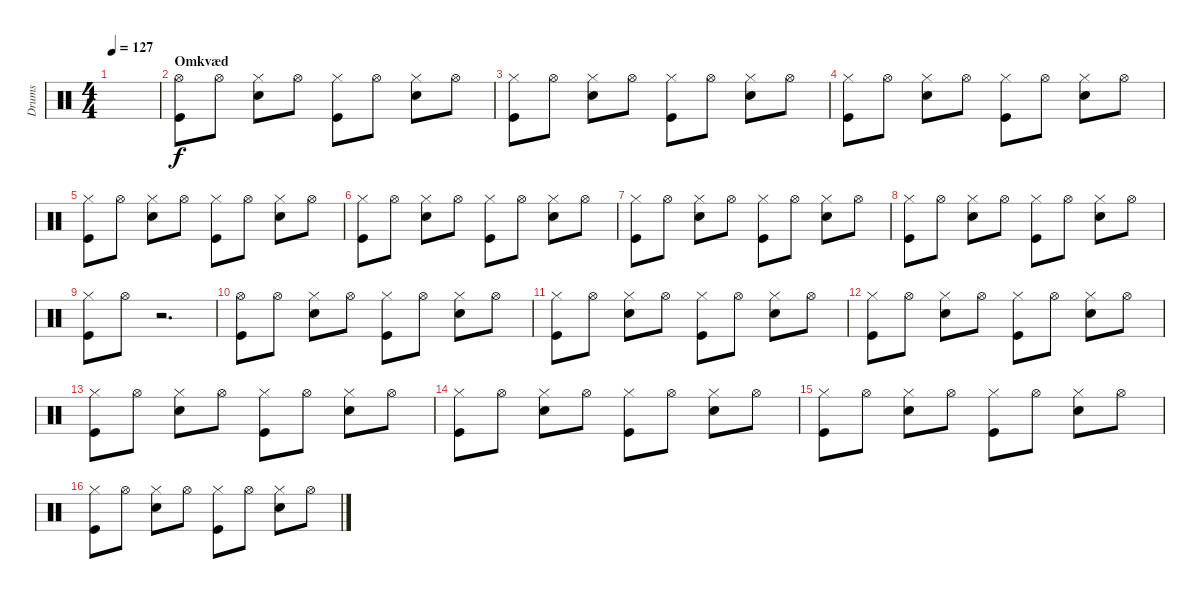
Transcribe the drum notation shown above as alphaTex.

\track ("Drums" "Drums") {instrument percussion}
\staff {score}
\articulation defaults
\ts (4 4)
\tempo 127
\clef neutral
\ks c
|
\section ("" "Omkvæd")
("Kick (hit)" "Hi-Hat (open)").8 "Hi-Hat (open)".8 ("Hi-Hat (closed)" "Snare (hit) 2").8 "Hi-Hat (open)".8 ("Hi-Hat (closed)" "Kick (hit)").8 "Hi-Hat (open)".8 ("Hi-Hat (closed)" "Snare (hit) 2").8 "Hi-Hat (open)".8 |
("Kick (hit)" "Hi-Hat (closed)").8 "Hi-Hat (open)".8 ("Hi-Hat (closed)" "Snare (hit) 2").8 "Hi-Hat (open)".8 ("Hi-Hat (closed)" "Kick (hit)").8 "Hi-Hat (open)".8 ("Hi-Hat (closed)" "Snare (hit) 2").8 "Hi-Hat (open)".8 |
("Kick (hit)" "Hi-Hat (closed)").8 "Hi-Hat (open)".8 ("Hi-Hat (closed)" "Snare (hit) 2").8 "Hi-Hat (open)".8 ("Hi-Hat (closed)" "Kick (hit)").8 "Hi-Hat (open)".8 ("Hi-Hat (closed)" "Snare (hit) 2").8 "Hi-Hat (open)".8 |
("Kick (hit)" "Hi-Hat (closed)").8 "Hi-Hat (open)".8 ("Hi-Hat (closed)" "Snare (hit) 2").8 "Hi-Hat (open)".8 ("Hi-Hat (closed)" "Kick (hit)").8 "Hi-Hat (open)".8 ("Hi-Hat (closed)" "Snare (hit) 2").8 "Hi-Hat (open)".8 |
("Kick (hit)" "Hi-Hat (closed)").8 "Hi-Hat (open)".8 ("Hi-Hat (closed)" "Snare (hit) 2").8 "Hi-Hat (open)".8 ("Hi-Hat (closed)" "Kick (hit)").8 "Hi-Hat (open)".8 ("Hi-Hat (closed)" "Snare (hit) 2").8 "Hi-Hat (open)".8 |
("Kick (hit)" "Hi-Hat (closed)").8 "Hi-Hat (open)".8 ("Hi-Hat (closed)" "Snare (hit) 2").8 "Hi-Hat (open)".8 ("Hi-Hat (closed)" "Kick (hit)").8 "Hi-Hat (open)".8 ("Hi-Hat (closed)" "Snare (hit) 2").8 "Hi-Hat (open)".8 |
("Kick (hit)" "Hi-Hat (closed)").8 "Hi-Hat (open)".8 ("Hi-Hat (closed)" "Snare (hit) 2").8 "Hi-Hat (open)".8 ("Hi-Hat (closed)" "Kick (hit)").8 "Hi-Hat (open)".8 ("Hi-Hat (closed)" "Snare (hit) 2").8 "Hi-Hat (open)".8 |
("Kick (hit)" "Hi-Hat (closed)").8 "Hi-Hat (open)".8 r.2{d} |
("Kick (hit)" "Hi-Hat (open)").8 "Hi-Hat (open)".8 ("Hi-Hat (closed)" "Snare (hit) 2").8 "Hi-Hat (open)".8 ("Hi-Hat (closed)" "Kick (hit)").8 "Hi-Hat (open)".8 ("Hi-Hat (closed)" "Snare (hit) 2").8 "Hi-Hat (open)".8 |
("Kick (hit)" "Hi-Hat (closed)").8 "Hi-Hat (open)".8 ("Hi-Hat (closed)" "Snare (hit) 2").8 "Hi-Hat (open)".8 ("Hi-Hat (closed)" "Kick (hit)").8 "Hi-Hat (open)".8 ("Hi-Hat (closed)" "Snare (hit) 2").8 "Hi-Hat (open)".8 |
("Kick (hit)" "Hi-Hat (closed)").8 "Hi-Hat (open)".8 ("Hi-Hat (closed)" "Snare (hit) 2").8 "Hi-Hat (open)".8 ("Hi-Hat (closed)" "Kick (hit)").8 "Hi-Hat (open)".8 ("Hi-Hat (closed)" "Snare (hit) 2").8 "Hi-Hat (open)".8 |
("Kick (hit)" "Hi-Hat (closed)").8 "Hi-Hat (open)".8 ("Hi-Hat (closed)" "Snare (hit) 2").8 "Hi-Hat (open)".8 ("Hi-Hat (closed)" "Kick (hit)").8 "Hi-Hat (open)".8 ("Hi-Hat (closed)" "Snare (hit) 2").8 "Hi-Hat (open)".8 |
("Kick (hit)" "Hi-Hat (closed)").8 "Hi-Hat (open)".8 ("Hi-Hat (closed)" "Snare (hit) 2").8 "Hi-Hat (open)".8 ("Hi-Hat (closed)" "Kick (hit)").8 "Hi-Hat (open)".8 ("Hi-Hat (closed)" "Snare (hit) 2").8 "Hi-Hat (open)".8 |
("Kick (hit)" "Hi-Hat (closed)").8 "Hi-Hat (open)".8 ("Hi-Hat (closed)" "Snare (hit) 2").8 "Hi-Hat (open)".8 ("Hi-Hat (closed)" "Kick (hit)").8 "Hi-Hat (open)".8 ("Hi-Hat (closed)" "Snare (hit) 2").8 "Hi-Hat (open)".8 |
("Kick (hit)" "Hi-Hat (closed)").8 "Hi-Hat (open)".8 ("Hi-Hat (closed)" "Snare (hit) 2").8 "Hi-Hat (open)".8 ("Hi-Hat (closed)" "Kick (hit)").8 "Hi-Hat (open)".8 ("Hi-Hat (closed)" "Snare (hit) 2").8 "Hi-Hat (open)".8
